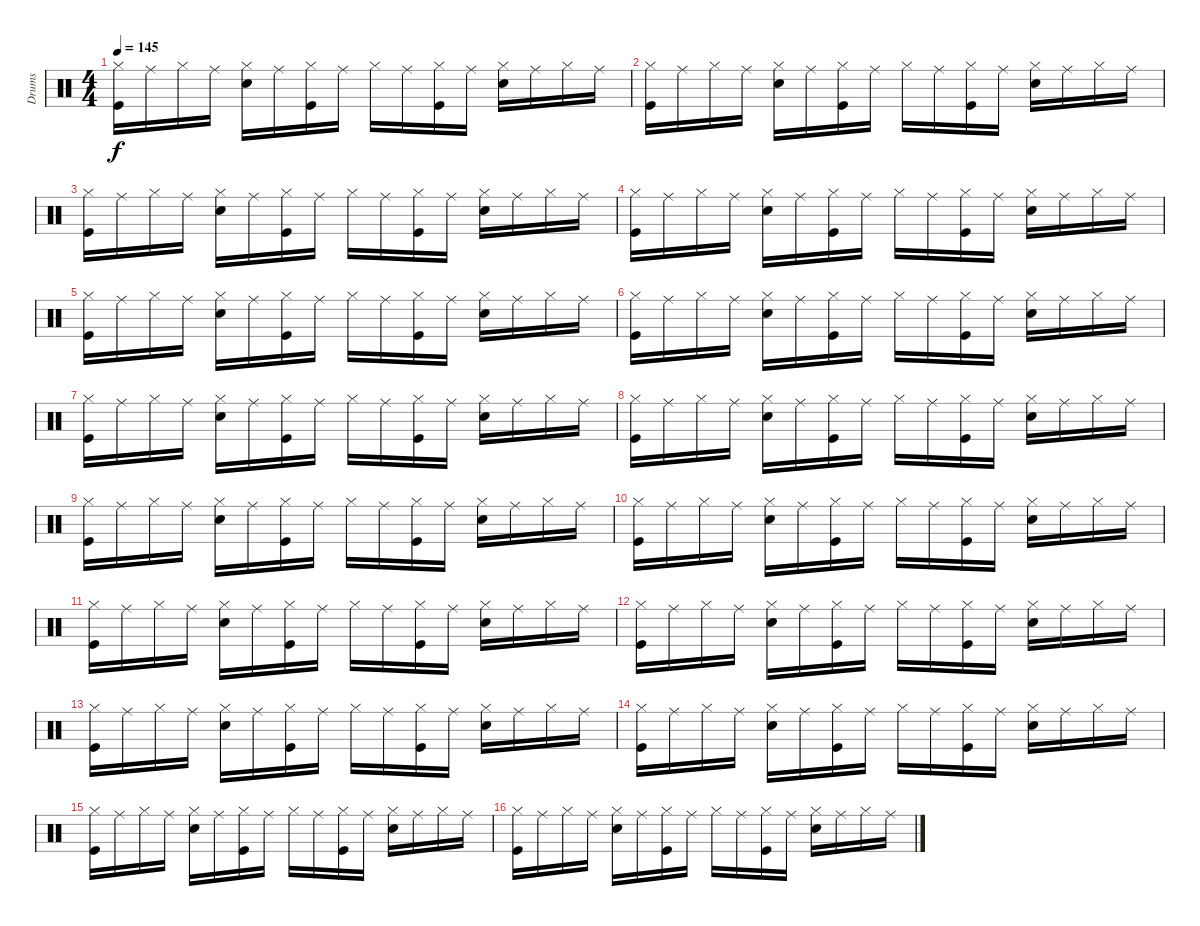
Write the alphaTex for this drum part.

\track ("Drums" "Drums") {instrument percussion}
\staff {score}
\articulation defaults
\ts (4 4)
\tempo 145
\clef neutral
\ks c
("Hi-Hat (closed)" "Kick (hit)").16{dy f} "Ride (middle)".16 "Hi-Hat (closed)".16 "Ride (middle)".16 ("Hi-Hat (closed)" "Snare (hit) 2").16 "Ride (middle)".16 ("Hi-Hat (closed)" "Kick (hit)").16 "Ride (middle)".16 "Hi-Hat (closed)".16 "Ride (middle)".16 ("Hi-Hat (closed)" "Kick (hit)").16 "Ride (middle)".16 ("Hi-Hat (closed)" "Snare (hit) 2").16 "Ride (middle)".16 "Hi-Hat (closed)".16 "Ride (middle)".16 |
("Hi-Hat (closed)" "Kick (hit)").16 "Ride (middle)".16 "Hi-Hat (closed)".16 "Ride (middle)".16 ("Hi-Hat (closed)" "Snare (hit) 2").16 "Ride (middle)".16 ("Hi-Hat (closed)" "Kick (hit)").16 "Ride (middle)".16 "Hi-Hat (closed)".16 "Ride (middle)".16 ("Hi-Hat (closed)" "Kick (hit)").16 "Ride (middle)".16 ("Hi-Hat (closed)" "Snare (hit) 2").16 "Ride (middle)".16 "Hi-Hat (closed)".16 "Ride (middle)".16 |
("Hi-Hat (closed)" "Kick (hit)").16 "Ride (middle)".16 "Hi-Hat (closed)".16 "Ride (middle)".16 ("Hi-Hat (closed)" "Snare (hit) 2").16 "Ride (middle)".16 ("Hi-Hat (closed)" "Kick (hit)").16 "Ride (middle)".16 "Hi-Hat (closed)".16 "Ride (middle)".16 ("Hi-Hat (closed)" "Kick (hit)").16 "Ride (middle)".16 ("Hi-Hat (closed)" "Snare (hit) 2").16 "Ride (middle)".16 "Hi-Hat (closed)".16 "Ride (middle)".16 |
("Hi-Hat (closed)" "Kick (hit)").16 "Ride (middle)".16 "Hi-Hat (closed)".16 "Ride (middle)".16 ("Hi-Hat (closed)" "Snare (hit) 2").16 "Ride (middle)".16 ("Hi-Hat (closed)" "Kick (hit)").16 "Ride (middle)".16 "Hi-Hat (closed)".16 "Ride (middle)".16 ("Hi-Hat (closed)" "Kick (hit)").16 "Ride (middle)".16 ("Hi-Hat (closed)" "Snare (hit) 2").16 "Ride (middle)".16 "Hi-Hat (closed)".16 "Ride (middle)".16 |
("Hi-Hat (closed)" "Kick (hit)").16 "Ride (middle)".16 "Hi-Hat (closed)".16 "Ride (middle)".16 ("Hi-Hat (closed)" "Snare (hit) 2").16 "Ride (middle)".16 ("Hi-Hat (closed)" "Kick (hit)").16 "Ride (middle)".16 "Hi-Hat (closed)".16 "Ride (middle)".16 ("Hi-Hat (closed)" "Kick (hit)").16 "Ride (middle)".16 ("Hi-Hat (closed)" "Snare (hit) 2").16 "Ride (middle)".16 "Hi-Hat (closed)".16 "Ride (middle)".16 |
("Hi-Hat (closed)" "Kick (hit)").16 "Ride (middle)".16 "Hi-Hat (closed)".16 "Ride (middle)".16 ("Hi-Hat (closed)" "Snare (hit) 2").16 "Ride (middle)".16 ("Hi-Hat (closed)" "Kick (hit)").16 "Ride (middle)".16 "Hi-Hat (closed)".16 "Ride (middle)".16 ("Hi-Hat (closed)" "Kick (hit)").16 "Ride (middle)".16 ("Hi-Hat (closed)" "Snare (hit) 2").16 "Ride (middle)".16 "Hi-Hat (closed)".16 "Ride (middle)".16 |
("Hi-Hat (closed)" "Kick (hit)").16 "Ride (middle)".16 "Hi-Hat (closed)".16 "Ride (middle)".16 ("Hi-Hat (closed)" "Snare (hit) 2").16 "Ride (middle)".16 ("Hi-Hat (closed)" "Kick (hit)").16 "Ride (middle)".16 "Hi-Hat (closed)".16 "Ride (middle)".16 ("Hi-Hat (closed)" "Kick (hit)").16 "Ride (middle)".16 ("Hi-Hat (closed)" "Snare (hit) 2").16 "Ride (middle)".16 "Hi-Hat (closed)".16 "Ride (middle)".16 |
("Hi-Hat (closed)" "Kick (hit)").16 "Ride (middle)".16 "Hi-Hat (closed)".16 "Ride (middle)".16 ("Hi-Hat (closed)" "Snare (hit) 2").16 "Ride (middle)".16 ("Hi-Hat (closed)" "Kick (hit)").16 "Ride (middle)".16 "Hi-Hat (closed)".16 "Ride (middle)".16 ("Hi-Hat (closed)" "Kick (hit)").16 "Ride (middle)".16 ("Hi-Hat (closed)" "Snare (hit) 2").16 "Ride (middle)".16 "Hi-Hat (closed)".16 "Ride (middle)".16 |
("Hi-Hat (closed)" "Kick (hit)").16 "Ride (middle)".16 "Hi-Hat (closed)".16 "Ride (middle)".16 ("Hi-Hat (closed)" "Snare (hit) 2").16 "Ride (middle)".16 ("Hi-Hat (closed)" "Kick (hit)").16 "Ride (middle)".16 "Hi-Hat (closed)".16 "Ride (middle)".16 ("Hi-Hat (closed)" "Kick (hit)").16 "Ride (middle)".16 ("Hi-Hat (closed)" "Snare (hit) 2").16 "Ride (middle)".16 "Hi-Hat (closed)".16 "Ride (middle)".16 |
("Hi-Hat (closed)" "Kick (hit)").16 "Ride (middle)".16 "Hi-Hat (closed)".16 "Ride (middle)".16 ("Hi-Hat (closed)" "Snare (hit) 2").16 "Ride (middle)".16 ("Hi-Hat (closed)" "Kick (hit)").16 "Ride (middle)".16 "Hi-Hat (closed)".16 "Ride (middle)".16 ("Hi-Hat (closed)" "Kick (hit)").16 "Ride (middle)".16 ("Hi-Hat (closed)" "Snare (hit) 2").16 "Ride (middle)".16 "Hi-Hat (closed)".16 "Ride (middle)".16 |
("Hi-Hat (closed)" "Kick (hit)").16 "Ride (middle)".16 "Hi-Hat (closed)".16 "Ride (middle)".16 ("Hi-Hat (closed)" "Snare (hit) 2").16 "Ride (middle)".16 ("Hi-Hat (closed)" "Kick (hit)").16 "Ride (middle)".16 "Hi-Hat (closed)".16 "Ride (middle)".16 ("Hi-Hat (closed)" "Kick (hit)").16 "Ride (middle)".16 ("Hi-Hat (closed)" "Snare (hit) 2").16 "Ride (middle)".16 "Hi-Hat (closed)".16 "Ride (middle)".16 |
("Hi-Hat (closed)" "Kick (hit)").16 "Ride (middle)".16 "Hi-Hat (closed)".16 "Ride (middle)".16 ("Hi-Hat (closed)" "Snare (hit) 2").16 "Ride (middle)".16 ("Hi-Hat (closed)" "Kick (hit)").16 "Ride (middle)".16 "Hi-Hat (closed)".16 "Ride (middle)".16 ("Hi-Hat (closed)" "Kick (hit)").16 "Ride (middle)".16 ("Hi-Hat (closed)" "Snare (hit) 2").16 "Ride (middle)".16 "Hi-Hat (closed)".16 "Ride (middle)".16 |
("Hi-Hat (closed)" "Kick (hit)").16 "Ride (middle)".16 "Hi-Hat (closed)".16 "Ride (middle)".16 ("Hi-Hat (closed)" "Snare (hit) 2").16 "Ride (middle)".16 ("Hi-Hat (closed)" "Kick (hit)").16 "Ride (middle)".16 "Hi-Hat (closed)".16 "Ride (middle)".16 ("Hi-Hat (closed)" "Kick (hit)").16 "Ride (middle)".16 ("Hi-Hat (closed)" "Snare (hit) 2").16 "Ride (middle)".16 "Hi-Hat (closed)".16 "Ride (middle)".16 |
("Hi-Hat (closed)" "Kick (hit)").16 "Ride (middle)".16 "Hi-Hat (closed)".16 "Ride (middle)".16 ("Hi-Hat (closed)" "Snare (hit) 2").16 "Ride (middle)".16 ("Hi-Hat (closed)" "Kick (hit)").16 "Ride (middle)".16 "Hi-Hat (closed)".16 "Ride (middle)".16 ("Hi-Hat (closed)" "Kick (hit)").16 "Ride (middle)".16 ("Hi-Hat (closed)" "Snare (hit) 2").16 "Ride (middle)".16 "Hi-Hat (closed)".16 "Ride (middle)".16 |
("Hi-Hat (closed)" "Kick (hit)").16 "Ride (middle)".16 "Hi-Hat (closed)".16 "Ride (middle)".16 ("Hi-Hat (closed)" "Snare (hit) 2").16 "Ride (middle)".16 ("Hi-Hat (closed)" "Kick (hit)").16 "Ride (middle)".16 "Hi-Hat (closed)".16 "Ride (middle)".16 ("Hi-Hat (closed)" "Kick (hit)").16 "Ride (middle)".16 ("Hi-Hat (closed)" "Snare (hit) 2").16 "Ride (middle)".16 "Hi-Hat (closed)".16 "Ride (middle)".16 |
("Hi-Hat (closed)" "Kick (hit)").16 "Ride (middle)".16 "Hi-Hat (closed)".16 "Ride (middle)".16 ("Hi-Hat (closed)" "Snare (hit) 2").16 "Ride (middle)".16 ("Hi-Hat (closed)" "Kick (hit)").16 "Ride (middle)".16 "Hi-Hat (closed)".16 "Ride (middle)".16 ("Hi-Hat (closed)" "Kick (hit)").16 "Ride (middle)".16 ("Hi-Hat (closed)" "Snare (hit) 2").16 "Ride (middle)".16 "Hi-Hat (closed)".16 "Ride (middle)".16
